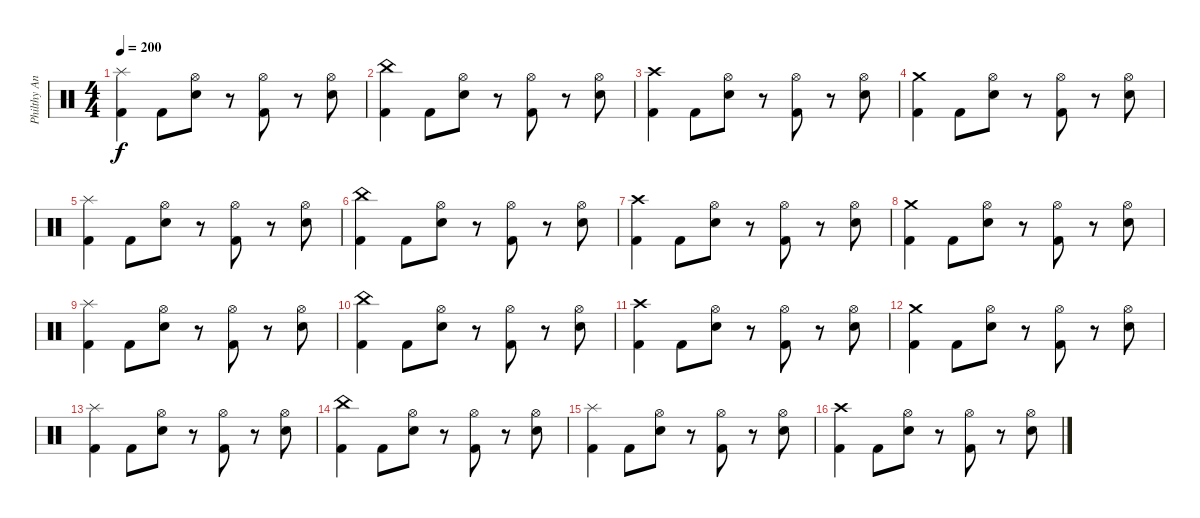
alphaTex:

\track ("Philthy Animal Taylor" "Philthy An") {instrument percussion}
\staff {score}
\articulation defaults
\ts (4 4)
\tempo 200
\clef neutral
\ks c
("Splash (hit)" "Kick (hit) 2").4{dy f} "Kick (hit) 2".8 ("Hi-Hat (open)" "Snare (hit) 2").8 r.8 ("Hi-Hat (open)" "Kick (hit) 2").8 r.8 ("Hi-Hat (open)" "Snare (hit) 2").8 |
("China (hit)" "Kick (hit) 2").4 "Kick (hit) 2".8 ("Hi-Hat (open)" "Snare (hit) 2").8 r.8 ("Hi-Hat (open)" "Kick (hit) 2").8 r.8 ("Hi-Hat (open)" "Snare (hit) 2").8 |
("Crash high (hit)" "Kick (hit) 2").4 "Kick (hit) 2".8 ("Hi-Hat (open)" "Snare (hit) 2").8 r.8 ("Hi-Hat (open)" "Kick (hit) 2").8 r.8 ("Hi-Hat (open)" "Snare (hit) 2").8 |
("Crash medium (hit)" "Kick (hit) 2").4 "Kick (hit) 2".8 ("Hi-Hat (open)" "Snare (hit) 2").8 r.8 ("Hi-Hat (open)" "Kick (hit) 2").8 r.8 ("Hi-Hat (open)" "Snare (hit) 2").8 |
("Splash (hit)" "Kick (hit) 2").4 "Kick (hit) 2".8 ("Hi-Hat (open)" "Snare (hit) 2").8 r.8 ("Hi-Hat (open)" "Kick (hit) 2").8 r.8 ("Hi-Hat (open)" "Snare (hit) 2").8 |
("China (hit)" "Kick (hit) 2").4 "Kick (hit) 2".8 ("Hi-Hat (open)" "Snare (hit) 2").8 r.8 ("Hi-Hat (open)" "Kick (hit) 2").8 r.8 ("Hi-Hat (open)" "Snare (hit) 2").8 |
("Crash high (hit)" "Kick (hit) 2").4 "Kick (hit) 2".8 ("Hi-Hat (open)" "Snare (hit) 2").8 r.8 ("Hi-Hat (open)" "Kick (hit) 2").8 r.8 ("Hi-Hat (open)" "Snare (hit) 2").8 |
("Crash medium (hit)" "Kick (hit) 2").4 "Kick (hit) 2".8 ("Hi-Hat (open)" "Snare (hit) 2").8 r.8 ("Hi-Hat (open)" "Kick (hit) 2").8 r.8 ("Hi-Hat (open)" "Snare (hit) 2").8 |
("Splash (hit)" "Kick (hit) 2").4 "Kick (hit) 2".8 ("Hi-Hat (open)" "Snare (hit) 2").8 r.8 ("Hi-Hat (open)" "Kick (hit) 2").8 r.8 ("Hi-Hat (open)" "Snare (hit) 2").8 |
("China (hit)" "Kick (hit) 2").4 "Kick (hit) 2".8 ("Hi-Hat (open)" "Snare (hit) 2").8 r.8 ("Hi-Hat (open)" "Kick (hit) 2").8 r.8 ("Hi-Hat (open)" "Snare (hit) 2").8 |
("Crash high (hit)" "Kick (hit) 2").4 "Kick (hit) 2".8 ("Hi-Hat (open)" "Snare (hit) 2").8 r.8 ("Hi-Hat (open)" "Kick (hit) 2").8 r.8 ("Hi-Hat (open)" "Snare (hit) 2").8 |
("Crash medium (hit)" "Kick (hit) 2").4 "Kick (hit) 2".8 ("Hi-Hat (open)" "Snare (hit) 2").8 r.8 ("Hi-Hat (open)" "Kick (hit) 2").8 r.8 ("Hi-Hat (open)" "Snare (hit) 2").8 |
("Splash (hit)" "Kick (hit) 2").4 "Kick (hit) 2".8 ("Hi-Hat (open)" "Snare (hit) 2").8 r.8 ("Hi-Hat (open)" "Kick (hit) 2").8 r.8 ("Hi-Hat (open)" "Snare (hit) 2").8 |
("China (hit)" "Kick (hit) 2").4 "Kick (hit) 2".8 ("Hi-Hat (open)" "Snare (hit) 2").8 r.8 ("Hi-Hat (open)" "Kick (hit) 2").8 r.8 ("Hi-Hat (open)" "Snare (hit) 2").8 |
("Splash (hit)" "Kick (hit) 2").4 "Kick (hit) 2".8 ("Hi-Hat (open)" "Snare (hit) 2").8 r.8 ("Hi-Hat (open)" "Kick (hit) 2").8 r.8 ("Hi-Hat (open)" "Snare (hit) 2").8 |
("Crash high (hit)" "Kick (hit) 2").4 "Kick (hit) 2".8 ("Hi-Hat (open)" "Snare (hit) 2").8 r.8 ("Hi-Hat (open)" "Kick (hit) 2").8 r.8 ("Hi-Hat (open)" "Snare (hit) 2").8
